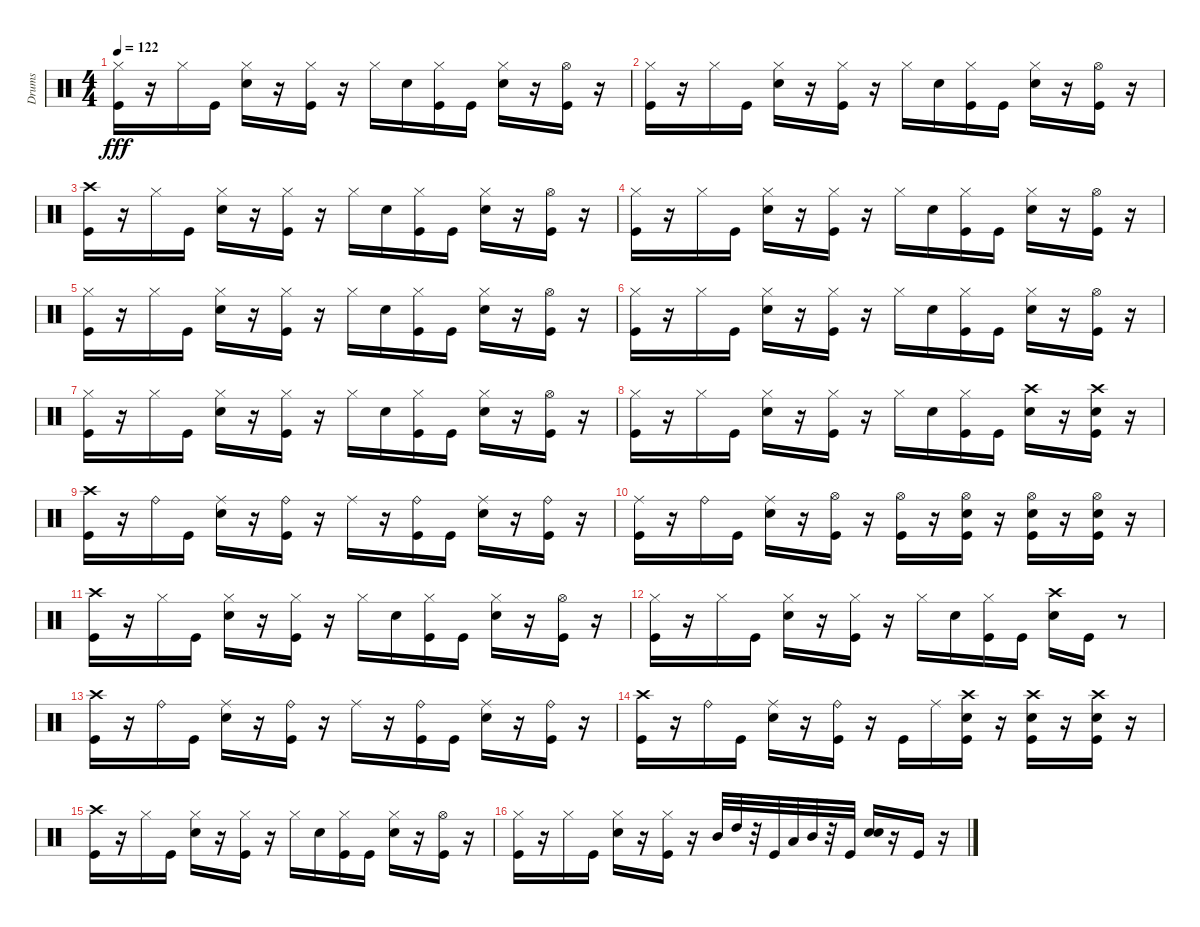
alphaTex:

\track ("Drums" "Drums") {instrument percussion}
\staff {score}
\articulation defaults
\ts (4 4)
\tempo 122
\clef neutral
\ks c
("Kick (hit)" "Hi-Hat (closed)").16{dy fff} r.16 "Hi-Hat (closed)".16 "Kick (hit)".16 ("Snare (hit) 2" "Hi-Hat (closed)").16 r.16 ("Kick (hit)" "Hi-Hat (closed)").16 r.16 "Hi-Hat (closed)".16 "Snare (hit) 2".16 ("Kick (hit)" "Hi-Hat (closed)").16 "Kick (hit)".16 ("Snare (hit) 2" "Hi-Hat (closed)").16 r.16 ("Kick (hit)" "Hi-Hat (open)").16 r.16 |
("Kick (hit)" "Hi-Hat (closed)").16 r.16 "Hi-Hat (closed)".16 "Kick (hit)".16 ("Snare (hit) 2" "Hi-Hat (closed)").16 r.16 ("Kick (hit)" "Hi-Hat (closed)").16 r.16 "Hi-Hat (closed)".16 "Snare (hit) 2".16 ("Kick (hit)" "Hi-Hat (closed)").16 "Kick (hit)".16 ("Snare (hit) 2" "Hi-Hat (closed)").16 r.16 ("Kick (hit)" "Hi-Hat (open)").16 r.16 |
("Crash high (hit)" "Kick (hit)").16 r.16 "Hi-Hat (closed)".16 "Kick (hit)".16 ("Hi-Hat (closed)" "Snare (hit) 2").16 r.16 ("Hi-Hat (closed)" "Kick (hit)").16 r.16 "Hi-Hat (closed)".16 "Snare (hit) 2".16 ("Hi-Hat (closed)" "Kick (hit)").16 "Kick (hit)".16 ("Hi-Hat (closed)" "Snare (hit) 2").16 r.16 ("Hi-Hat (open)" "Kick (hit)").16 r.16 |
("Kick (hit)" "Hi-Hat (closed)").16 r.16 "Hi-Hat (closed)".16 "Kick (hit)".16 ("Snare (hit) 2" "Hi-Hat (closed)").16 r.16 ("Kick (hit)" "Hi-Hat (closed)").16 r.16 "Hi-Hat (closed)".16 "Snare (hit) 2".16 ("Kick (hit)" "Hi-Hat (closed)").16 "Kick (hit)".16 ("Snare (hit) 2" "Hi-Hat (closed)").16 r.16 ("Kick (hit)" "Hi-Hat (open)").16 r.16 |
("Kick (hit)" "Hi-Hat (closed)").16 r.16 "Hi-Hat (closed)".16 "Kick (hit)".16 ("Snare (hit) 2" "Hi-Hat (closed)").16 r.16 ("Kick (hit)" "Hi-Hat (closed)").16 r.16 "Hi-Hat (closed)".16 "Snare (hit) 2".16 ("Kick (hit)" "Hi-Hat (closed)").16 "Kick (hit)".16 ("Snare (hit) 2" "Hi-Hat (closed)").16 r.16 ("Kick (hit)" "Hi-Hat (open)").16 r.16 |
("Kick (hit)" "Hi-Hat (closed)").16 r.16 "Hi-Hat (closed)".16 "Kick (hit)".16 ("Snare (hit) 2" "Hi-Hat (closed)").16 r.16 ("Kick (hit)" "Hi-Hat (closed)").16 r.16 "Hi-Hat (closed)".16 "Snare (hit) 2".16 ("Kick (hit)" "Hi-Hat (closed)").16 "Kick (hit)".16 ("Snare (hit) 2" "Hi-Hat (closed)").16 r.16 ("Kick (hit)" "Hi-Hat (open)").16 r.16 |
("Kick (hit)" "Hi-Hat (closed)").16 r.16 "Hi-Hat (closed)".16 "Kick (hit)".16 ("Snare (hit) 2" "Hi-Hat (closed)").16 r.16 ("Kick (hit)" "Hi-Hat (closed)").16 r.16 "Hi-Hat (closed)".16 "Snare (hit) 2".16 ("Kick (hit)" "Hi-Hat (closed)").16 "Kick (hit)".16 ("Snare (hit) 2" "Hi-Hat (closed)").16 r.16 ("Kick (hit)" "Hi-Hat (open)").16 r.16 |
("Kick (hit)" "Hi-Hat (closed)").16 r.16 "Hi-Hat (closed)".16 "Kick (hit)".16 ("Snare (hit) 2" "Hi-Hat (closed)").16 r.16 ("Kick (hit)" "Hi-Hat (closed)").16 r.16 "Hi-Hat (closed)".16 "Snare (hit) 2".16 ("Kick (hit)" "Hi-Hat (closed)").16 "Kick (hit)".16 ("Snare (hit) 2" "Crash high (hit)").16 r.16 ("Kick (hit)" "Snare (hit) 2" "Crash high (hit)").16 r.16 |
("Crash high (hit)" "Kick (hit)").16 r.16 "Ride (bell)".16 "Kick (hit)".16 ("Snare (hit) 2" "Ride (middle)").16 r.16 ("Kick (hit)" "Ride (bell)").16 r.16 "Ride (middle)".16 r.16 ("Kick (hit)" "Ride (bell)").16 "Kick (hit)".16 ("Snare (hit) 2" "Ride (middle)").16 r.16 ("Kick (hit)" "Ride (bell)").16 r.16 |
("Ride (middle)" "Kick (hit)").16 r.16 "Ride (bell)".16 "Kick (hit)".16 ("Ride (middle)" "Snare (hit) 2").16 r.16 ("Kick (hit)" "Hi-Hat (open)").16 r.16 ("Kick (hit)" "Hi-Hat (open)").16 r.16 ("Kick (hit)" "Snare (hit) 2" "Hi-Hat (open)").16 r.16 ("Kick (hit)" "Snare (hit) 2" "Hi-Hat (open)").16 r.16 ("Kick (hit)" "Snare (hit) 2" "Hi-Hat (open)").16 r.16 |
("Crash high (hit)" "Kick (hit)").16 r.16 "Hi-Hat (closed)".16 "Kick (hit)".16 ("Snare (hit) 2" "Hi-Hat (closed)").16 r.16 ("Kick (hit)" "Hi-Hat (closed)").16 r.16 "Hi-Hat (closed)".16 "Snare (hit) 2".16 ("Kick (hit)" "Hi-Hat (closed)").16 "Kick (hit)".16 ("Snare (hit) 2" "Hi-Hat (closed)").16 r.16 ("Kick (hit)" "Hi-Hat (open)").16 r.16 |
("Kick (hit)" "Hi-Hat (closed)").16 r.16 "Hi-Hat (closed)".16 "Kick (hit)".16 ("Snare (hit) 2" "Hi-Hat (closed)").16 r.16 ("Kick (hit)" "Hi-Hat (closed)").16 r.16 "Hi-Hat (closed)".16 "Snare (hit) 2".16 ("Kick (hit)" "Hi-Hat (closed)").16 "Kick (hit)".16 ("Snare (hit) 2" "Crash high (hit)").16 "Kick (hit)".16 r.8 |
("Crash high (hit)" "Kick (hit)").16 r.16 "Ride (bell)".16 "Kick (hit)".16 ("Snare (hit) 2" "Ride (middle)").16 r.16 ("Kick (hit)" "Ride (bell)").16 r.16 "Ride (middle)".16 r.16 ("Kick (hit)" "Ride (bell)").16 "Kick (hit)".16 ("Snare (hit) 2" "Ride (middle)").16 r.16 ("Kick (hit)" "Ride (bell)").16 r.16 |
("Crash high (hit)" "Kick (hit)").16 r.16 "Ride (bell)".16 "Kick (hit)".16 ("Ride (middle)" "Snare (hit) 2").16 r.16 ("Ride (bell)" "Kick (hit)").16 r.16 "Kick (hit)".16 "Ride (middle)".16 ("Kick (hit)" "Snare (hit) 2" "Crash high (hit)").16 r.16 ("Kick (hit)" "Snare (hit) 2" "Crash high (hit)").16 r.16 ("Kick (hit)" "Snare (hit) 2" "Crash high (hit)").16 r.16 |
("Crash high (hit)" "Kick (hit)").16 r.16 "Hi-Hat (closed)".16 "Kick (hit)".16 ("Snare (hit) 2" "Hi-Hat (closed)").16 r.16 ("Kick (hit)" "Hi-Hat (closed)").16 r.16 "Hi-Hat (closed)".16 "Snare (hit) 2".16 ("Kick (hit)" "Hi-Hat (closed)").16 "Kick (hit)".16 ("Snare (hit) 2" "Hi-Hat (closed)").16 r.16 ("Kick (hit)" "Hi-Hat (open)").16 r.16 |
("Kick (hit)" "Hi-Hat (closed)").16 r.16 "Hi-Hat (closed)".16 "Kick (hit)".16 ("Snare (hit) 2" "Hi-Hat (closed)").16 r.16 ("Kick (hit)" "Hi-Hat (closed)").16 r.16 "Mid Tom (hit)".32 "High Tom (hit)".32 r.32 "Kick (hit)".32 "Low Tom (hit)".32 "Mid Tom (hit)".32 r.32 "Kick (hit)".32 ("Snare (hit) 2" "Electric Snare (hit)").16 r.16 "Kick (hit)".16 r.16
